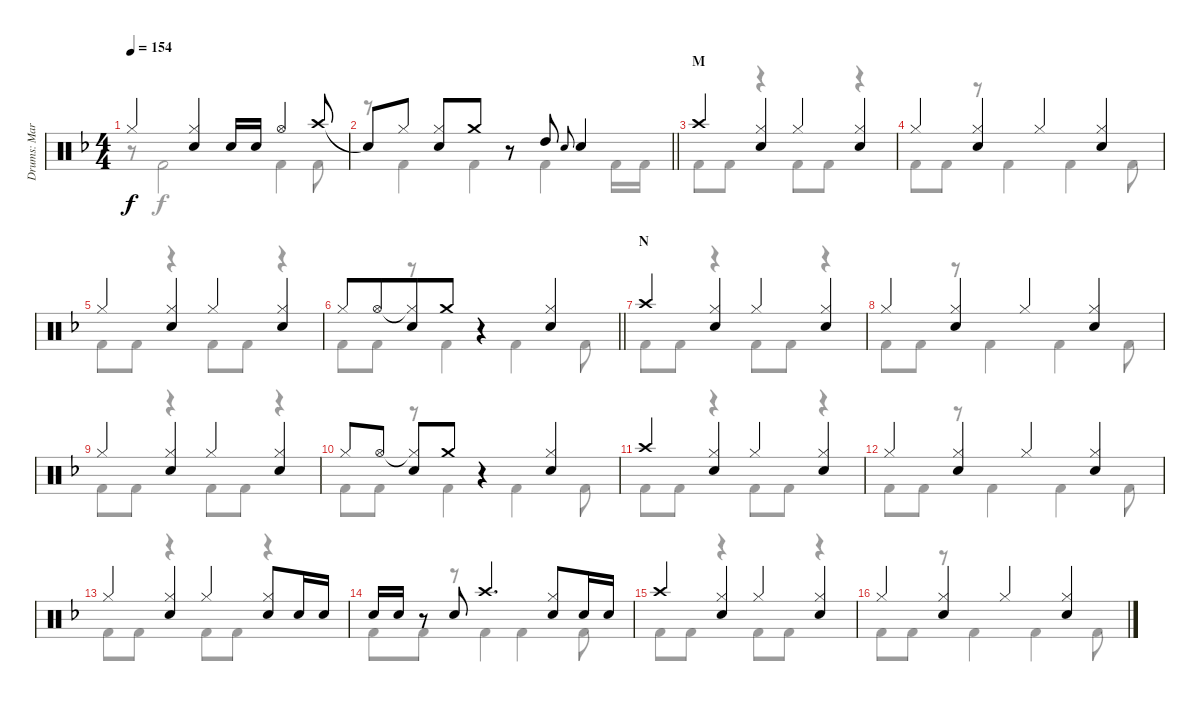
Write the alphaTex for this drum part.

\track ("Drums: Mark" "Drums: Mar") {instrument percussion}
\staff {score}
\articulation defaults
\voice
\ts (4 4)
\tempo 154
\clef neutral
\ks f "Hi-Hat (closed)".4{dy f}
("Hi-Hat (closed)" "Snare (hit) 2").4 "Snare (hit) 2".16 "Snare (hit) 2".16 "Hi-Hat (open)".4 "Crash high (hit)".8 |
\barLineRight lightlight "Snare (hit)"{t}.8 "Hi-Hat (closed)".8
("Hi-Hat (closed)" "Snare (hit) 2").8 "Crash medium (hit)".8 r.8 "High Tom (hit)".8 "Electric Snare (hit)".8{gr onbeat} "Snare (hit) 2".4 |
\section ("" "M")
"Crash high (hit)".4 ("Hi-Hat (closed)" "Snare (hit) 2").4 "Hi-Hat (closed)".4 ("Hi-Hat (closed)" "Snare (hit) 2").4 |
"Hi-Hat (closed)".4 ("Hi-Hat (closed)" "Snare (hit) 2").4 "Hi-Hat (closed)".4 ("Hi-Hat (closed)" "Snare (hit) 2").4 |
"Hi-Hat (closed)".4 ("Hi-Hat (closed)" "Snare (hit) 2").4 "Hi-Hat (closed)".4 ("Hi-Hat (closed)" "Snare (hit) 2").4 |
\barLineRight lightlight "Hi-Hat (closed)".8 "Hi-Hat (open)".8{beam merge}
("Hi-Hat (closed)"{t} "Snare (hit) 2").8 "Crash medium (hit)".8 r.4 ("Hi-Hat (closed)" "Snare (hit) 2").4 |
\section ("" "N")
"Crash high (hit)".4 ("Hi-Hat (closed)" "Snare (hit) 2").4 "Hi-Hat (closed)".4 ("Hi-Hat (closed)" "Snare (hit) 2").4 |
"Hi-Hat (closed)".4 ("Hi-Hat (closed)" "Snare (hit) 2").4 "Hi-Hat (closed)".4 ("Hi-Hat (closed)" "Snare (hit) 2").4 |
"Hi-Hat (closed)".4 ("Hi-Hat (closed)" "Snare (hit) 2").4 "Hi-Hat (closed)".4 ("Hi-Hat (closed)" "Snare (hit) 2").4 |
"Hi-Hat (closed)".8 "Hi-Hat (open)".8 ("Hi-Hat (closed)"{t} "Snare (hit) 2").8 "Crash medium (hit)".8 r.4 ("Hi-Hat (closed)" "Snare (hit) 2").4 |
"Crash high (hit)".4 ("Hi-Hat (closed)" "Snare (hit) 2").4 "Hi-Hat (closed)".4 ("Hi-Hat (closed)" "Snare (hit) 2").4 |
"Hi-Hat (closed)".4 ("Hi-Hat (closed)" "Snare (hit) 2").4 "Hi-Hat (closed)".4 ("Hi-Hat (closed)" "Snare (hit) 2").4 |
"Hi-Hat (closed)".4 ("Hi-Hat (closed)" "Snare (hit) 2").4 "Hi-Hat (closed)".4 ("Hi-Hat (closed)" "Snare (hit) 2").8 "Snare (hit) 2".16 "Snare (hit) 2".16 |
"Snare (hit) 2".16 "Snare (hit) 2".16 r.8 "Snare (hit) 2".8 "Crash high (hit)".4{d} ("Hi-Hat (closed)" "Snare (hit) 2").8 "Snare (hit) 2".16 "Snare (hit) 2".16 |
"Crash high (hit)".4 ("Hi-Hat (closed)" "Snare (hit) 2").4 "Hi-Hat (closed)".4 ("Hi-Hat (closed)" "Snare (hit) 2").4 |
"Hi-Hat (closed)".4 ("Hi-Hat (closed)" "Snare (hit) 2").4 "Hi-Hat (closed)".4 ("Hi-Hat (closed)" "Snare (hit) 2").4
\voice
\clef neutral
\ottava regular
\simile none
\ks f
r.8{dy f} "Kick (hit) 2".2 "Kick (hit) 2".4 "Kick (hit) 2".8 |
\barLineRight lightlight
r.8 "Kick (hit) 2".4 "Kick (hit) 2".4 "Kick (hit) 2".4 "Kick (hit) 2".16 "Kick (hit) 2".16 |
"Kick (hit) 2".8 "Kick (hit) 2".8 r.4 "Kick (hit) 2".8 "Kick (hit) 2".8 r.4 |
"Kick (hit) 2".8 "Kick (hit) 2".8 r.8 "Kick (hit) 2".4 "Kick (hit) 2".4 "Kick (hit) 2".8 |
"Kick (hit) 2".8 "Kick (hit) 2".8 r.4 "Kick (hit) 2".8 "Kick (hit) 2".8 r.4 |
\barLineRight lightlight "Kick (hit) 2".8 "Kick (hit) 2".8
r.8 "Kick (hit) 2".4 "Kick (hit) 2".4 "Kick (hit) 2".8 |
"Kick (hit) 2".8 "Kick (hit) 2".8 r.4 "Kick (hit) 2".8 "Kick (hit) 2".8 r.4 |
"Kick (hit) 2".8 "Kick (hit) 2".8 r.8 "Kick (hit) 2".4 "Kick (hit) 2".4 "Kick (hit) 2".8 |
"Kick (hit) 2".8 "Kick (hit) 2".8 r.4 "Kick (hit) 2".8 "Kick (hit) 2".8 r.4 |
"Kick (hit) 2".8 "Kick (hit) 2".8 r.8 "Kick (hit) 2".4 "Kick (hit) 2".4 "Kick (hit) 2".8 |
"Kick (hit) 2".8 "Kick (hit) 2".8 r.4 "Kick (hit) 2".8 "Kick (hit) 2".8 r.4 |
"Kick (hit) 2".8 "Kick (hit) 2".8 r.8 "Kick (hit) 2".4 "Kick (hit) 2".4 "Kick (hit) 2".8 |
"Kick (hit) 2".8 "Kick (hit) 2".8 r.4 "Kick (hit) 2".8 "Kick (hit) 2".8 r.4 |
"Kick (hit) 2".8 "Kick (hit) 2".8 r.8 "Kick (hit) 2".4 "Kick (hit) 2".4 "Kick (hit) 2".8 |
"Kick (hit) 2".8 "Kick (hit) 2".8 r.4 "Kick (hit) 2".8 "Kick (hit) 2".8 r.4 |
"Kick (hit) 2".8 "Kick (hit) 2".8 r.8 "Kick (hit) 2".4 "Kick (hit) 2".4 "Kick (hit) 2".8
